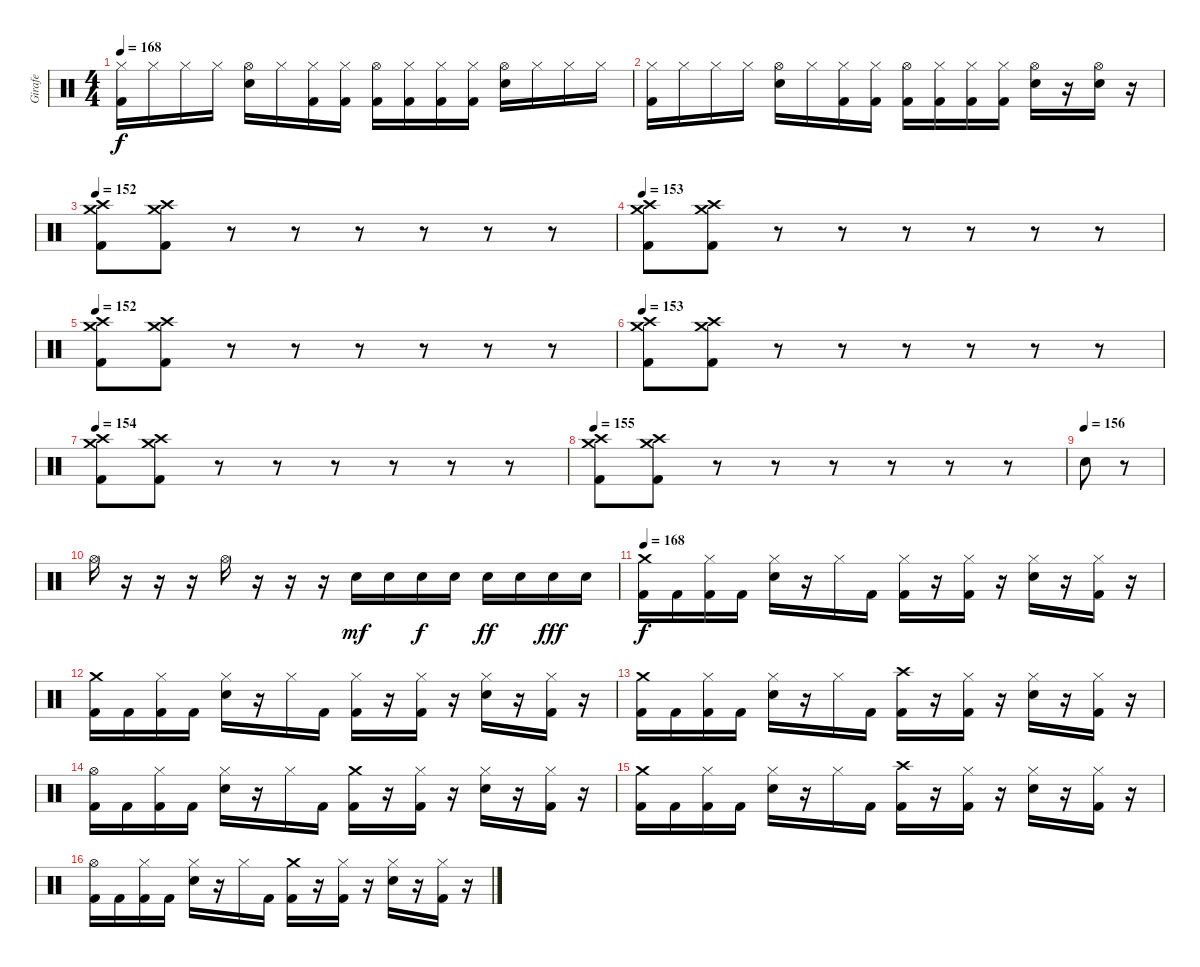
\track ("Girafe" "Girafe") {instrument percussion}
\staff {score}
\articulation defaults
\ts (4 4)
\tempo 168
\clef neutral
\ks c
("Hi-Hat (closed)" "Kick (hit) 2").16{dy f} "Hi-Hat (closed)".16 "Hi-Hat (closed)".16 "Hi-Hat (closed)".16 ("Hi-Hat (open)" "Electric Snare (hit)").16 "Hi-Hat (closed)".16 ("Hi-Hat (closed)" "Kick (hit) 2").16 ("Hi-Hat (closed)" "Kick (hit) 2").16 ("Hi-Hat (open)" "Kick (hit) 2").16 ("Hi-Hat (closed)" "Kick (hit) 2").16 ("Hi-Hat (closed)" "Kick (hit) 2").16 ("Hi-Hat (closed)" "Kick (hit) 2").16 ("Hi-Hat (open)" "Electric Snare (hit)").16 "Hi-Hat (closed)".16 "Hi-Hat (closed)".16 "Hi-Hat (closed)".16 |
("Hi-Hat (closed)" "Kick (hit) 2").16 "Hi-Hat (closed)".16 "Hi-Hat (closed)".16 "Hi-Hat (closed)".16 ("Hi-Hat (open)" "Electric Snare (hit)").16 "Hi-Hat (closed)".16 ("Hi-Hat (closed)" "Kick (hit) 2").16 ("Hi-Hat (closed)" "Kick (hit) 2").16 ("Hi-Hat (open)" "Kick (hit) 2").16 ("Hi-Hat (closed)" "Kick (hit) 2").16 ("Hi-Hat (closed)" "Kick (hit) 2").16 ("Hi-Hat (closed)" "Kick (hit) 2").16 ("Hi-Hat (open)" "Electric Snare (hit)").16 r.16 ("Hi-Hat (open)" "Electric Snare (hit)").16 r.16 |
\tempo 152
("Crash high (hit)" "Crash medium (hit)" "Kick (hit) 2").8 ("Crash high (hit)" "Crash medium (hit)" "Kick (hit) 2").8 r.8 r.8 r.8 r.8 r.8 r.8 |
\tempo 153
("Crash high (hit)" "Crash medium (hit)" "Kick (hit) 2").8 ("Crash high (hit)" "Crash medium (hit)" "Kick (hit) 2").8 r.8 r.8 r.8 r.8 r.8 r.8 |
\tempo 152
("Crash high (hit)" "Crash medium (hit)" "Kick (hit) 2").8 ("Crash high (hit)" "Crash medium (hit)" "Kick (hit) 2").8 r.8 r.8 r.8 r.8 r.8 r.8 |
\tempo 153
("Crash high (hit)" "Crash medium (hit)" "Kick (hit) 2").8 ("Crash high (hit)" "Crash medium (hit)" "Kick (hit) 2").8 r.8 r.8 r.8 r.8 r.8 r.8 |
\tempo 154
("Crash high (hit)" "Crash medium (hit)" "Kick (hit) 2").8 ("Crash high (hit)" "Crash medium (hit)" "Kick (hit) 2").8 r.8 r.8 r.8 r.8 r.8 r.8 |
\tempo 155
("Crash high (hit)" "Crash medium (hit)" "Kick (hit) 2").8 ("Crash high (hit)" "Crash medium (hit)" "Kick (hit) 2").8 r.8 r.8 r.8 r.8 r.8 r.8 |
\tempo (156)
"Electric Snare (hit)".8 r.8 |
"Hi-Hat (open)".16 r.16 r.16 r.16 "Hi-Hat (open)".16 r.16 r.16 r.16 "Electric Snare (hit)".16{dy mf} "Electric Snare (hit)".16 "Electric Snare (hit)".16{dy f} "Electric Snare (hit)".16 "Electric Snare (hit)".16{dy ff} "Electric Snare (hit)".16 "Electric Snare (hit)".16{dy fff} "Electric Snare (hit)".16 |
\tempo 168
("Crash medium (hit)" "Kick (hit) 2").16{dy f} "Kick (hit) 2".16 ("Hi-Hat (closed)" "Kick (hit) 2").16 "Kick (hit) 2".16 ("Hi-Hat (closed)" "Electric Snare (hit)").16 r.16 "Hi-Hat (closed)".16 "Kick (hit) 2".16 ("Hi-Hat (closed)" "Kick (hit) 2").16 r.16 ("Hi-Hat (closed)" "Kick (hit) 2").16 r.16 ("Hi-Hat (closed)" "Electric Snare (hit)").16 r.16 ("Hi-Hat (closed)" "Kick (hit) 2").16 r.16 |
("Crash medium (hit)" "Kick (hit) 2").16 "Kick (hit) 2".16 ("Hi-Hat (closed)" "Kick (hit) 2").16 "Kick (hit) 2".16 ("Hi-Hat (closed)" "Electric Snare (hit)").16 r.16 "Hi-Hat (closed)".16 "Kick (hit) 2".16 ("Hi-Hat (closed)" "Kick (hit) 2").16 r.16 ("Hi-Hat (closed)" "Kick (hit) 2").16 r.16 ("Hi-Hat (closed)" "Electric Snare (hit)").16 r.16 ("Hi-Hat (closed)" "Kick (hit) 2").16 r.16 |
("Crash medium (hit)" "Kick (hit) 2").16 "Kick (hit) 2".16 ("Hi-Hat (closed)" "Kick (hit) 2").16 "Kick (hit) 2".16 ("Hi-Hat (closed)" "Electric Snare (hit)").16 r.16 "Hi-Hat (closed)".16 "Kick (hit) 2".16 ("Crash high (hit)" "Kick (hit) 2").16 r.16 ("Hi-Hat (closed)" "Kick (hit) 2").16 r.16 ("Hi-Hat (closed)" "Electric Snare (hit)").16 r.16 ("Hi-Hat (closed)" "Kick (hit) 2").16 r.16 |
("Hi-Hat (open)" "Kick (hit) 2").16 "Kick (hit) 2".16 ("Hi-Hat (closed)" "Kick (hit) 2").16 "Kick (hit) 2".16 ("Hi-Hat (closed)" "Electric Snare (hit)").16 r.16 "Hi-Hat (closed)".16 "Kick (hit) 2".16 ("Crash medium (hit)" "Kick (hit) 2").16 r.16 ("Hi-Hat (closed)" "Kick (hit) 2").16 r.16 ("Hi-Hat (closed)" "Electric Snare (hit)").16 r.16 ("Hi-Hat (closed)" "Kick (hit) 2").16 r.16 |
("Crash medium (hit)" "Kick (hit) 2").16 "Kick (hit) 2".16 ("Hi-Hat (closed)" "Kick (hit) 2").16 "Kick (hit) 2".16 ("Hi-Hat (closed)" "Electric Snare (hit)").16 r.16 "Hi-Hat (closed)".16 "Kick (hit) 2".16 ("Crash high (hit)" "Kick (hit) 2").16 r.16 ("Hi-Hat (closed)" "Kick (hit) 2").16 r.16 ("Hi-Hat (closed)" "Electric Snare (hit)").16 r.16 ("Hi-Hat (closed)" "Kick (hit) 2").16 r.16 |
("Hi-Hat (open)" "Kick (hit) 2").16 "Kick (hit) 2".16 ("Hi-Hat (closed)" "Kick (hit) 2").16 "Kick (hit) 2".16 ("Hi-Hat (closed)" "Electric Snare (hit)").16 r.16 "Hi-Hat (closed)".16 "Kick (hit) 2".16 ("Crash medium (hit)" "Kick (hit) 2").16 r.16 ("Hi-Hat (closed)" "Kick (hit) 2").16 r.16 ("Hi-Hat (closed)" "Electric Snare (hit)").16 r.16 ("Hi-Hat (closed)" "Kick (hit) 2").16 r.16
